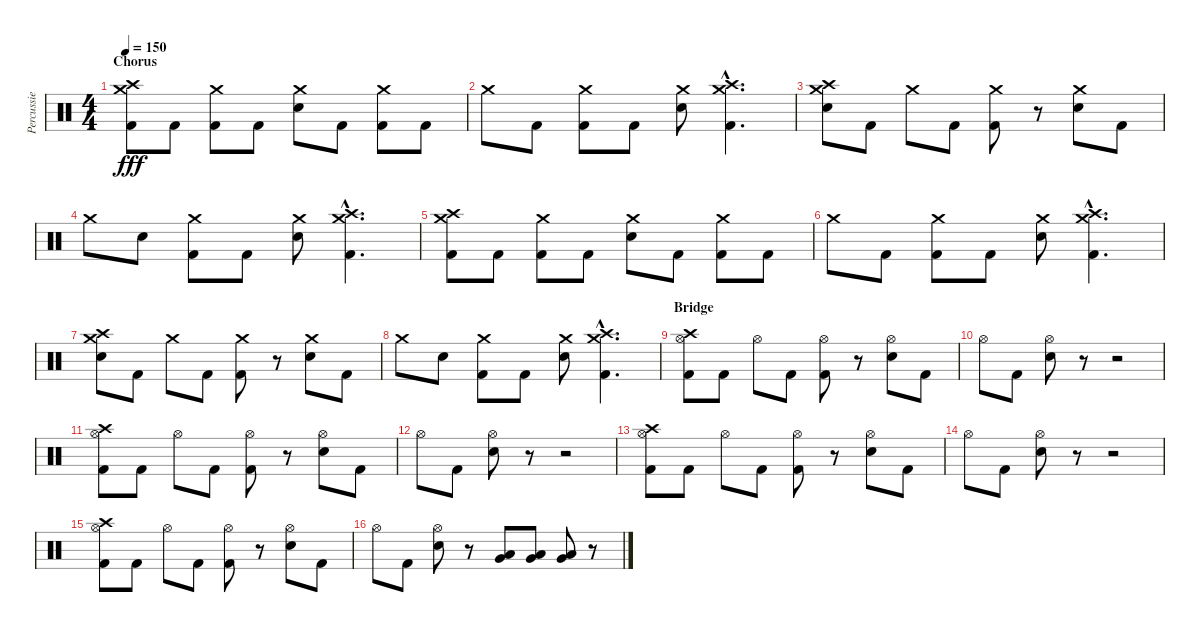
\track ("Percussie" "Percussie") {instrument percussion}
\staff {score}
\articulation defaults
\ts (4 4)
\section ("" "Chorus")
\tempo 150
\clef neutral
\ks c
("Kick (hit) 2" "Crash high (hit)" "Crash medium (hit)").8{dy fff} "Kick (hit) 2".8 ("Kick (hit) 2" "Crash medium (hit)").8 "Kick (hit) 2".8 ("Electric Snare (hit)" "Crash medium (hit)").8 "Kick (hit) 2".8 ("Kick (hit) 2" "Crash medium (hit)").8 "Kick (hit) 2".8 |
"Crash medium (hit)".8 "Kick (hit) 2".8 ("Kick (hit) 2" "Crash medium (hit)").8 "Kick (hit) 2".8 ("Electric Snare (hit)" "Crash medium (hit)").8 ("Kick (hit) 2"{hac} "Crash high (hit)"{hac} "Crash medium (hit)"{hac}).4{d} |
("Electric Snare (hit)" "Crash high (hit)" "Crash medium (hit)").8 "Kick (hit) 2".8 "Crash medium (hit)".8 "Kick (hit) 2".8 ("Kick (hit) 2" "Crash medium (hit)").8 r.8 ("Electric Snare (hit)" "Crash medium (hit)").8 "Kick (hit) 2".8 |
"Crash medium (hit)".8 "Electric Snare (hit)".8 ("Kick (hit) 2" "Crash medium (hit)").8 "Kick (hit) 2".8 ("Electric Snare (hit)" "Crash medium (hit)").8 ("Kick (hit) 2"{hac} "Crash high (hit)"{hac} "Crash medium (hit)"{hac}).4{d} |
("Kick (hit) 2" "Crash high (hit)" "Crash medium (hit)").8 "Kick (hit) 2".8 ("Kick (hit) 2" "Crash medium (hit)").8 "Kick (hit) 2".8 ("Electric Snare (hit)" "Crash medium (hit)").8 "Kick (hit) 2".8 ("Kick (hit) 2" "Crash medium (hit)").8 "Kick (hit) 2".8 |
"Crash medium (hit)".8 "Kick (hit) 2".8 ("Kick (hit) 2" "Crash medium (hit)").8 "Kick (hit) 2".8 ("Electric Snare (hit)" "Crash medium (hit)").8 ("Kick (hit) 2"{hac} "Crash high (hit)"{hac} "Crash medium (hit)"{hac}).4{d} |
("Electric Snare (hit)" "Crash high (hit)" "Crash medium (hit)").8 "Kick (hit) 2".8 "Crash medium (hit)".8 "Kick (hit) 2".8 ("Kick (hit) 2" "Crash medium (hit)").8 r.8 ("Electric Snare (hit)" "Crash medium (hit)").8 "Kick (hit) 2".8 |
"Crash medium (hit)".8 "Electric Snare (hit)".8 ("Kick (hit) 2" "Crash medium (hit)").8 "Kick (hit) 2".8 ("Electric Snare (hit)" "Crash medium (hit)").8 ("Kick (hit) 2"{hac} "Crash high (hit)"{hac} "Crash medium (hit)"{hac}).4{d} |
\section ("" "Bridge")
("Kick (hit) 2" "Crash high (hit)" "Hi-Hat (open)").8 "Kick (hit) 2".8 "Hi-Hat (open)".8 "Kick (hit) 2".8 ("Kick (hit) 2" "Hi-Hat (open)").8 r.8 ("Electric Snare (hit)" "Hi-Hat (open)").8 "Kick (hit) 2".8 |
"Hi-Hat (open)".8 "Kick (hit) 2".8 ("Electric Snare (hit)" "Hi-Hat (open)").8 r.8 r.2 |
("Kick (hit) 2" "Crash high (hit)" "Hi-Hat (open)").8 "Kick (hit) 2".8 "Hi-Hat (open)".8 "Kick (hit) 2".8 ("Kick (hit) 2" "Hi-Hat (open)").8 r.8 ("Electric Snare (hit)" "Hi-Hat (open)").8 "Kick (hit) 2".8 |
"Hi-Hat (open)".8 "Kick (hit) 2".8 ("Electric Snare (hit)" "Hi-Hat (open)").8 r.8 r.2 |
("Kick (hit) 2" "Crash high (hit)" "Hi-Hat (open)").8 "Kick (hit) 2".8 "Hi-Hat (open)".8 "Kick (hit) 2".8 ("Kick (hit) 2" "Hi-Hat (open)").8 r.8 ("Electric Snare (hit)" "Hi-Hat (open)").8 "Kick (hit) 2".8 |
"Hi-Hat (open)".8 "Kick (hit) 2".8 ("Electric Snare (hit)" "Hi-Hat (open)").8 r.8 r.2 |
("Kick (hit) 2" "Crash high (hit)" "Hi-Hat (open)").8 "Kick (hit) 2".8 "Hi-Hat (open)".8 "Kick (hit) 2".8 ("Kick (hit) 2" "Hi-Hat (open)").8 r.8 ("Electric Snare (hit)" "Hi-Hat (open)").8 "Kick (hit) 2".8 |
"Hi-Hat (open)".8 "Kick (hit) 2".8 ("Electric Snare (hit)" "Hi-Hat (open)").8 r.8 ("Low Tom (hit)" "Very Low Tom (hit)").8 ("Low Tom (hit)" "Very Low Tom (hit)").8 ("Low Tom (hit)" "Very Low Tom (hit)").8 r.8
